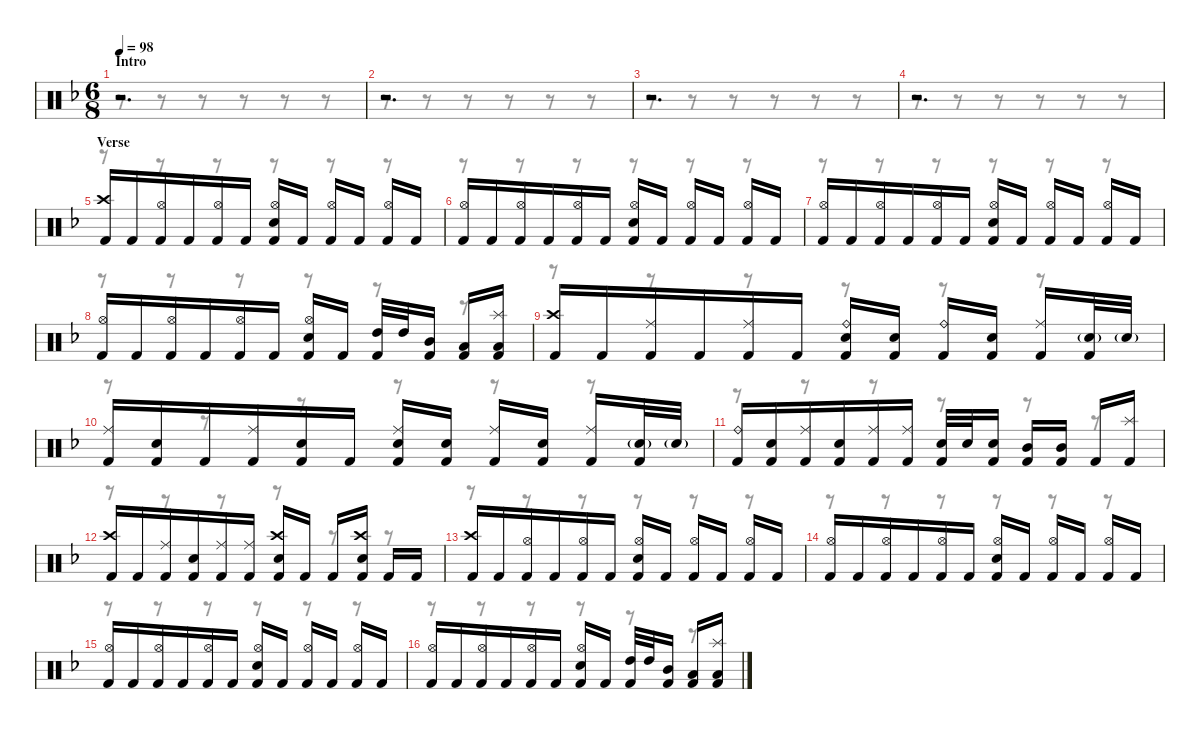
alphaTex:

\defaultSystemsLayout 4
\hideDynamics
\bracketExtendMode nobrackets
\singleTrackTrackNamePolicy hidden
\multiTrackTrackNamePolicy hidden
\otherSystemsTrackNameOrientation horizontal
\track ("M. Lopez" "drm.") {instrument percussion}
\staff {score}
\articulation defaults
\voice
\ts (6 8)
\beaming (8 3 1 1 1)
\section ("" "Intro")
\tempo 98
\clef neutral
\ks dminor
r.2{d dy f beam Up} |
r.2{d beam Up} |
r.2{d beam Up} |
r.2{d beam Up} |
\section ("" "Verse")
("Crash high (hit)"{acc forcenatural} "Kick (hit) 2"{acc forcenatural}).16{beam Up} "Kick (hit) 2"{acc forcenatural}.16{beam Up} ("Hi-Hat (open)"{acc forcenatural} "Kick (hit) 2"{acc forcenatural}).16{beam Up} "Kick (hit) 2"{acc forcenatural}.16{beam Up} ("Hi-Hat (open)"{acc forcenatural} "Kick (hit) 2"{acc forcenatural}).16{beam Up} "Kick (hit) 2"{acc forcenatural}.16{beam Up} ("Hi-Hat (open)"{acc forcenatural} "Snare (hit) 2"{acc forcenatural} "Kick (hit) 2"{acc forcenatural}).16{beam Up} "Kick (hit) 2"{acc forcenatural}.16{beam Up} ("Hi-Hat (open)"{acc forcenatural} "Kick (hit) 2"{acc forcenatural}).16{beam Up} "Kick (hit) 2"{acc forcenatural}.16{beam Up} ("Hi-Hat (open)"{acc forcenatural} "Kick (hit) 2"{acc forcenatural}).16{beam Up} "Kick (hit) 2"{acc forcenatural}.16{beam Up} |
("Hi-Hat (open)"{acc forcenatural} "Kick (hit) 2"{acc forcenatural}).16{beam Up} "Kick (hit) 2"{acc forcenatural}.16{beam Up} ("Hi-Hat (open)"{acc forcenatural} "Kick (hit) 2"{acc forcenatural}).16{beam Up} "Kick (hit) 2"{acc forcenatural}.16{beam Up} ("Hi-Hat (open)"{acc forcenatural} "Kick (hit) 2"{acc forcenatural}).16{beam Up} "Kick (hit) 2"{acc forcenatural}.16{beam Up} ("Hi-Hat (open)"{acc forcenatural} "Snare (hit) 2"{acc forcenatural} "Kick (hit) 2"{acc forcenatural}).16{beam Up} "Kick (hit) 2"{acc forcenatural}.16{beam Up} ("Hi-Hat (open)"{acc forcenatural} "Kick (hit) 2"{acc forcenatural}).16{beam Up} "Kick (hit) 2"{acc forcenatural}.16{beam Up} ("Hi-Hat (open)"{acc forcenatural} "Kick (hit) 2"{acc forcenatural}).16{beam Up} "Kick (hit) 2"{acc forcenatural}.16{beam Up} |
("Hi-Hat (open)"{acc forcenatural} "Kick (hit) 2"{acc forcenatural}).16{beam Up} "Kick (hit) 2"{acc forcenatural}.16{beam Up} ("Hi-Hat (open)"{acc forcenatural} "Kick (hit) 2"{acc forcenatural}).16{beam Up} "Kick (hit) 2"{acc forcenatural}.16{beam Up} ("Hi-Hat (open)"{acc forcenatural} "Kick (hit) 2"{acc forcenatural}).16{beam Up} "Kick (hit) 2"{acc forcenatural}.16{beam Up} ("Hi-Hat (open)"{acc forcenatural} "Snare (hit) 2"{acc forcenatural} "Kick (hit) 2"{acc forcenatural}).16{beam Up} "Kick (hit) 2"{acc forcenatural}.16{beam Up} ("Hi-Hat (open)"{acc forcenatural} "Kick (hit) 2"{acc forcenatural}).16{beam Up} "Kick (hit) 2"{acc forcenatural}.16{beam Up} ("Hi-Hat (open)"{acc forcenatural} "Kick (hit) 2"{acc forcenatural}).16{beam Up} "Kick (hit) 2"{acc forcenatural}.16{beam Up} |
("Hi-Hat (open)"{acc forcenatural} "Kick (hit) 2"{acc forcenatural}).16{beam Up} "Kick (hit) 2"{acc forcenatural}.16{beam Up} ("Hi-Hat (open)"{acc forcenatural} "Kick (hit) 2"{acc forcenatural}).16{beam Up} "Kick (hit) 2"{acc forcenatural}.16{beam Up} ("Hi-Hat (open)"{acc forcenatural} "Kick (hit) 2"{acc forcenatural}).16{beam Up} "Kick (hit) 2"{acc forcenatural}.16{beam Up} ("Hi-Hat (open)"{acc forcenatural} "Snare (hit) 2"{acc forcenatural} "Kick (hit) 2"{acc forcenatural}).16{beam Up} "Kick (hit) 2"{acc forcenatural}.16{beam Up} ("High Tom (hit)"{acc forcenatural} "Kick (hit) 2"{acc forcenatural}).32{beam Up} "High Tom (hit)"{acc forcenatural}.32{beam Up} ("Mid Tom (hit)"{acc forcenatural} "Kick (hit) 2"{acc forcenatural}).16{beam Up} ("Low Tom (hit)"{acc forcenatural} "Kick (hit) 2"{acc forcenatural}).16{beam Up} ("Splash (hit)"{acc forcenatural} "Low Tom (hit)"{acc forcenatural} "Kick (hit) 2"{acc forcenatural}).16{beam Up} |
("Crash high (hit)"{acc forcenatural} "Kick (hit) 2"{acc forcenatural}).16{beam Up} "Kick (hit) 2"{acc forcenatural}.16{beam Up} ("Ride (middle)"{acc forcenatural} "Kick (hit) 2"{acc forcenatural}).16{beam Up} "Kick (hit) 2"{acc forcenatural}.16{beam Up} ("Ride (middle)"{acc forcenatural} "Kick (hit) 2"{acc forcenatural}).16{beam Up} "Kick (hit) 2"{acc forcenatural}.16{beam Up} ("Ride (bell)"{acc forcenatural} "Snare (hit) 2"{acc forcenatural} "Kick (hit) 2"{acc forcenatural}).16{beam Up} ("Snare (hit) 2"{acc forcenatural} "Kick (hit) 2"{acc forcenatural}).16{beam Up} ("Ride (bell)"{acc forcenatural} "Kick (hit) 2"{acc forcenatural}).16{beam Up} ("Snare (hit) 2"{acc forcenatural} "Kick (hit) 2"{acc forcenatural}).16{beam Up} ("Ride (middle)"{acc forcenatural} "Kick (hit) 2"{acc forcenatural}).16{beam Up} ("Snare (hit) 2"{g acc forcenatural} "Kick (hit) 2"{acc forcenatural}).32{beam Up} "Snare (hit) 2"{g acc forcenatural}.32{dy mf beam Up} |
("Ride (middle)"{acc forcenatural} "Kick (hit) 2"{acc forcenatural}).16{dy f beam Up} ("Snare (hit) 2"{acc forcenatural} "Kick (hit) 2"{acc forcenatural}).16{beam Up} "Kick (hit) 2"{acc forcenatural}.16{beam Up} ("Ride (middle)"{acc forcenatural} "Kick (hit) 2"{acc forcenatural}).16{beam Up} ("Snare (hit) 2"{acc forcenatural} "Kick (hit) 2"{acc forcenatural}).16{beam Up} "Kick (hit) 2"{acc forcenatural}.16{beam Up} ("Ride (middle)"{acc forcenatural} "Snare (hit) 2"{acc forcenatural} "Kick (hit) 2"{acc forcenatural}).16{beam Up} ("Snare (hit) 2"{acc forcenatural} "Kick (hit) 2"{acc forcenatural}).16{beam Up} ("Ride (middle)"{acc forcenatural} "Kick (hit) 2"{acc forcenatural}).16{beam Up} ("Snare (hit) 2"{acc forcenatural} "Kick (hit) 2"{acc forcenatural}).16{beam Up} ("Ride (middle)"{acc forcenatural} "Kick (hit) 2"{acc forcenatural}).16{beam Up} ("Snare (hit) 2"{g acc forcenatural} "Kick (hit) 2"{acc forcenatural}).32{beam Up} "Snare (hit) 2"{g acc forcenatural}.32{dy mf beam Up} |
("Ride (bell)"{acc forcenatural} "Kick (hit) 2"{acc forcenatural}).16{dy f beam Up} ("Snare (hit) 2"{acc forcenatural} "Kick (hit) 2"{acc forcenatural}).16{beam Up} ("Ride (middle)"{acc forcenatural} "Kick (hit) 2"{acc forcenatural}).16{beam Up} ("Snare (hit) 2"{acc forcenatural} "Kick (hit) 2"{acc forcenatural}).16{beam Up} ("Ride (middle)"{acc forcenatural} "Kick (hit) 2"{acc forcenatural}).16{beam Up} ("Ride (middle)"{acc forcenatural} "Kick (hit) 2"{acc forcenatural}).16{beam Up} ("Snare (hit) 2"{acc forcenatural} "Kick (hit) 2"{acc forcenatural}).32{beam Up} "Snare (hit) 2"{acc forcenatural}.32{beam Up} ("Snare (hit) 2"{acc forcenatural} "Kick (hit) 2"{acc forcenatural}).16{beam Up} ("Mid Tom (hit)"{acc forcenatural} "Kick (hit) 2"{acc forcenatural}).16{beam Up} ("Mid Tom (hit)"{acc forcenatural} "Kick (hit) 2"{acc forcenatural}).16{beam Up} "Kick (hit) 2"{acc forcenatural}.16{beam Up} ("Splash (hit)"{acc forcenatural} "Kick (hit) 2"{acc forcenatural}).16{beam Up} |
("Crash high (hit)"{acc forcenatural} "Kick (hit) 2"{acc forcenatural}).16{beam Up} "Kick (hit) 2"{acc forcenatural}.16{beam Up} ("Ride (middle)"{acc forcenatural} "Kick (hit) 2"{acc forcenatural}).16{beam Up} ("Snare (hit) 2"{acc forcenatural} "Kick (hit) 2"{acc forcenatural}).16{dy mf beam Up} ("Ride (middle)"{acc forcenatural} "Kick (hit) 2"{acc forcenatural}).16{dy f beam Up} ("Ride (middle)"{acc forcenatural} "Kick (hit) 2"{acc forcenatural}).16{dy mf beam Up} ("Crash high (hit)"{acc forcenatural} "Snare (hit) 2"{acc forcenatural} "Kick (hit) 2"{acc forcenatural}).16{dy f beam Up} "Kick (hit) 2"{acc forcenatural}.16{beam Up} "Kick (hit) 2"{acc forcenatural}.16{beam Up} ("Crash high (hit)"{acc forcenatural} "Snare (hit) 2"{acc forcenatural} "Kick (hit) 2"{acc forcenatural}).16{beam Up} "Kick (hit) 2"{acc forcenatural}.16{beam Up} "Kick (hit) 2"{acc forcenatural}.16{beam Up} |
("Crash high (hit)"{acc forcenatural} "Kick (hit) 2"{acc forcenatural}).16{beam Up} "Kick (hit) 2"{acc forcenatural}.16{beam Up} ("Hi-Hat (open)"{acc forcenatural} "Kick (hit) 2"{acc forcenatural}).16{beam Up} "Kick (hit) 2"{acc forcenatural}.16{beam Up} ("Hi-Hat (open)"{acc forcenatural} "Kick (hit) 2"{acc forcenatural}).16{beam Up} "Kick (hit) 2"{acc forcenatural}.16{beam Up} ("Hi-Hat (open)"{acc forcenatural} "Snare (hit) 2"{acc forcenatural} "Kick (hit) 2"{acc forcenatural}).16{beam Up} "Kick (hit) 2"{acc forcenatural}.16{beam Up} ("Hi-Hat (open)"{acc forcenatural} "Kick (hit) 2"{acc forcenatural}).16{beam Up} "Kick (hit) 2"{acc forcenatural}.16{beam Up} ("Hi-Hat (open)"{acc forcenatural} "Kick (hit) 2"{acc forcenatural}).16{beam Up} "Kick (hit) 2"{acc forcenatural}.16{beam Up} |
("Hi-Hat (open)"{acc forcenatural} "Kick (hit) 2"{acc forcenatural}).16{beam Up} "Kick (hit) 2"{acc forcenatural}.16{beam Up} ("Hi-Hat (open)"{acc forcenatural} "Kick (hit) 2"{acc forcenatural}).16{beam Up} "Kick (hit) 2"{acc forcenatural}.16{beam Up} ("Hi-Hat (open)"{acc forcenatural} "Kick (hit) 2"{acc forcenatural}).16{beam Up} "Kick (hit) 2"{acc forcenatural}.16{beam Up} ("Hi-Hat (open)"{acc forcenatural} "Snare (hit) 2"{acc forcenatural} "Kick (hit) 2"{acc forcenatural}).16{beam Up} "Kick (hit) 2"{acc forcenatural}.16{beam Up} ("Hi-Hat (open)"{acc forcenatural} "Kick (hit) 2"{acc forcenatural}).16{beam Up} "Kick (hit) 2"{acc forcenatural}.16{beam Up} ("Hi-Hat (open)"{acc forcenatural} "Kick (hit) 2"{acc forcenatural}).16{beam Up} "Kick (hit) 2"{acc forcenatural}.16{beam Up} |
("Hi-Hat (open)"{acc forcenatural} "Kick (hit) 2"{acc forcenatural}).16{beam Up} "Kick (hit) 2"{acc forcenatural}.16{beam Up} ("Hi-Hat (open)"{acc forcenatural} "Kick (hit) 2"{acc forcenatural}).16{beam Up} "Kick (hit) 2"{acc forcenatural}.16{beam Up} ("Hi-Hat (open)"{acc forcenatural} "Kick (hit) 2"{acc forcenatural}).16{beam Up} "Kick (hit) 2"{acc forcenatural}.16{beam Up} ("Hi-Hat (open)"{acc forcenatural} "Snare (hit) 2"{acc forcenatural} "Kick (hit) 2"{acc forcenatural}).16{beam Up} "Kick (hit) 2"{acc forcenatural}.16{beam Up} ("Hi-Hat (open)"{acc forcenatural} "Kick (hit) 2"{acc forcenatural}).16{beam Up} "Kick (hit) 2"{acc forcenatural}.16{beam Up} ("Hi-Hat (open)"{acc forcenatural} "Kick (hit) 2"{acc forcenatural}).16{beam Up} "Kick (hit) 2"{acc forcenatural}.16{beam Up} |
("Hi-Hat (open)"{acc forcenatural} "Kick (hit) 2"{acc forcenatural}).16{beam Up} "Kick (hit) 2"{acc forcenatural}.16{beam Up} ("Hi-Hat (open)"{acc forcenatural} "Kick (hit) 2"{acc forcenatural}).16{beam Up} "Kick (hit) 2"{acc forcenatural}.16{beam Up} ("Hi-Hat (open)"{acc forcenatural} "Kick (hit) 2"{acc forcenatural}).16{beam Up} "Kick (hit) 2"{acc forcenatural}.16{beam Up} ("Hi-Hat (open)"{acc forcenatural} "Snare (hit) 2"{acc forcenatural} "Kick (hit) 2"{acc forcenatural}).16{beam Up} "Kick (hit) 2"{acc forcenatural}.16{beam Up} ("High Tom (hit)"{acc forcenatural} "Kick (hit) 2"{acc forcenatural}).32{beam Up} "High Tom (hit)"{acc forcenatural}.32{beam Up} ("Mid Tom (hit)"{acc forcenatural} "Kick (hit) 2"{acc forcenatural}).16{beam Up} ("Low Tom (hit)"{acc forcenatural} "Kick (hit) 2"{acc forcenatural}).16{beam Up} ("Splash (hit)"{acc forcenatural} "Low Tom (hit)"{acc forcenatural} "Kick (hit) 2"{acc forcenatural}).16{beam Up}
\voice
\clef neutral
\ottava regular
\simile none
\ks dminor
r.8{dy mf beam Down} r.8{beam Down} r.8{beam Down} r.8{beam Down} r.8{beam Down} r.8{beam Down} |
r.8{beam Down} r.8{beam Down} r.8{beam Down} r.8{beam Down} r.8{beam Down} r.8{beam Down} |
r.8{beam Down} r.8{beam Down} r.8{beam Down} r.8{beam Down} r.8{beam Down} r.8{beam Down} |
r.8{beam Down} r.8{beam Down} r.8{beam Down} r.8{beam Down} r.8{beam Down} r.8{beam Down} |
r.8{beam Down} r.8{beam Down} r.8{beam Down} r.8{beam Down} r.8{beam Down} r.8{beam Down} |
r.8{beam Down} r.8{beam Down} r.8{beam Down} r.8{beam Down} r.8{beam Down} r.8{beam Down} |
r.8{beam Down} r.8{beam Down} r.8{beam Down} r.8{beam Down} r.8{beam Down} r.8{beam Down} |
r.8{beam Down} r.8{beam Down} r.8{beam Down} r.8{beam Down} r.8{beam Down} r.8{beam Down} |
r.8{beam Down} r.8{beam Down} r.8{beam Down} r.8{beam Down} r.8{beam Down} r.8{beam Down} |
r.8{beam Down} r.8{beam Down} r.8{beam Down} r.8{beam Down} r.8{beam Down} r.8{beam Down} |
r.8{beam Down} r.8{beam Down} r.8{beam Down} r.8{beam Down} r.8{beam Down} r.8{beam Down} |
r.8{beam Down} r.8{beam Down} r.8{beam Down} r.8{beam Down} r.8{beam Down} r.8{beam Down} |
r.8{beam Down} r.8{beam Down} r.8{beam Down} r.8{beam Down} r.8{beam Down} r.8{beam Down} |
r.8{beam Down} r.8{beam Down} r.8{beam Down} r.8{beam Down} r.8{beam Down} r.8{beam Down} |
r.8{beam Down} r.8{beam Down} r.8{beam Down} r.8{beam Down} r.8{beam Down} r.8{beam Down} |
r.8{beam Down} r.8{beam Down} r.8{beam Down} r.8{beam Down} r.8{beam Down} r.8{beam Down}
